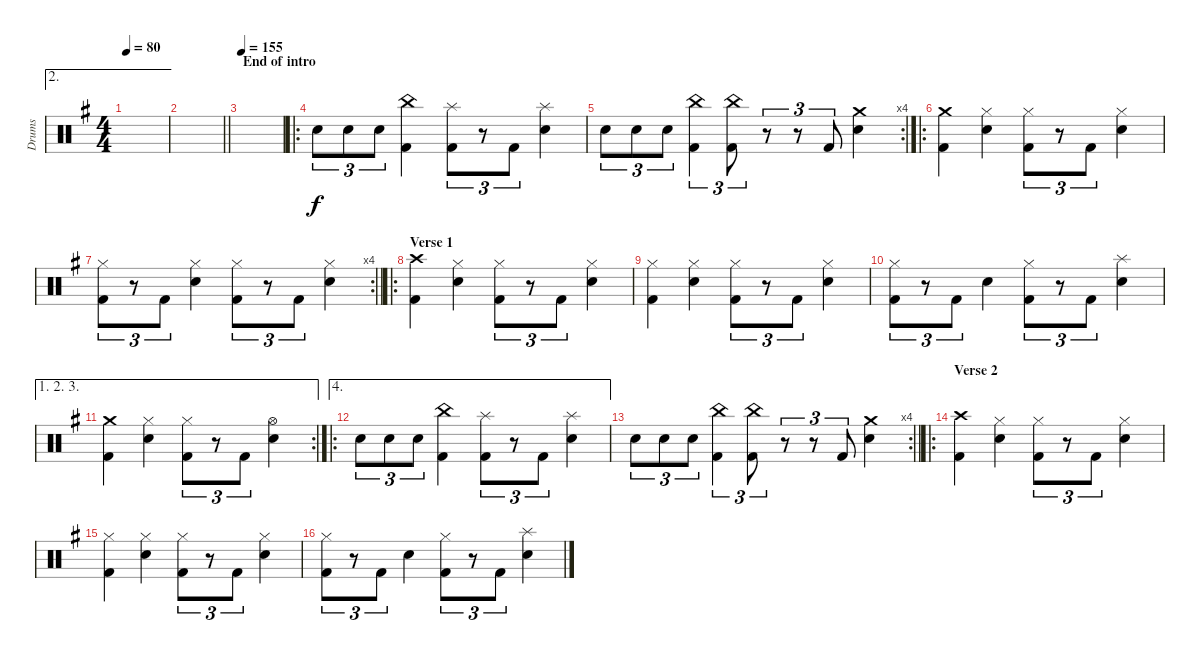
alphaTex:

\track ("Drums" "Drums") {instrument percussion}
\staff {score}
\articulation defaults
\ae 2
\ts (4 4)
\tempo 80
\clef neutral
\ks eminor
|
\barLineRight lightlight
|
\section ("" "End of intro")
\tempo 155
|
\ro "Electric Snare (hit)".8{tu (3 2)} "Electric Snare (hit)".8{tu (3 2)} "Electric Snare (hit)".8{tu (3 2)}
("China (hit)" "Kick (hit) 2").4 ("Splash (hit)" "Kick (hit) 2").8{tu (3 2)} r.8{tu (3 2)} "Kick (hit) 2".8{tu (3 2)} ("Splash (hit)" "Electric Snare (hit)").4 |
\rc 4 "Electric Snare (hit)".8{tu (3 2)} "Electric Snare (hit)".8{tu (3 2)} "Electric Snare (hit)".8{tu (3 2)}
("China (hit)" "Kick (hit) 2").4{tu (3 2)} ("China (hit)" "Kick (hit) 2").8{tu (3 2)} r.8{tu (3 2)} r.8{tu (3 2)} "Kick (hit) 2".8{tu (3 2)} ("Crash medium (hit)" "Electric Snare (hit)").4 |
\ro
("Crash medium (hit)" "Kick (hit) 2").4 ("Hi-Hat (closed)" "Snare (hit) 2").4 ("Hi-Hat (closed)" "Kick (hit) 2").8{tu (3 2)} r.8{tu (3 2)} "Kick (hit) 2".8{tu (3 2)} ("Hi-Hat (closed)" "Snare (hit) 2").4 |
\rc 4
\barLineRight lightlight
("Hi-Hat (closed)" "Kick (hit) 2").8{tu (3 2)} r.8{tu (3 2)} "Kick (hit) 2".8{tu (3 2)} ("Hi-Hat (closed)" "Snare (hit) 2").4 ("Hi-Hat (closed)" "Kick (hit) 2").8{tu (3 2)} r.8{tu (3 2)} "Kick (hit) 2".8{tu (3 2)} ("Hi-Hat (closed)" "Snare (hit) 2").4 |
\ro
\section ("" "Verse 1")
("Crash high (hit)" "Kick (hit) 2").4 ("Hi-Hat (closed)" "Snare (hit) 2").4 ("Hi-Hat (closed)" "Kick (hit) 2").8{tu (3 2)} r.8{tu (3 2)} "Kick (hit) 2".8{tu (3 2)} ("Hi-Hat (closed)" "Snare (hit) 2").4 |
("Hi-Hat (closed)" "Kick (hit) 2").4 ("Hi-Hat (closed)" "Snare (hit) 2").4 ("Hi-Hat (closed)" "Kick (hit) 2").8{tu (3 2)} r.8{tu (3 2)} "Kick (hit) 2".8{tu (3 2)} ("Hi-Hat (closed)" "Snare (hit) 2").4 |
("Hi-Hat (closed)" "Kick (hit) 2").8{tu (3 2)} r.8{tu (3 2)} "Kick (hit) 2".8{tu (3 2)} "Snare (hit) 2".4 ("Hi-Hat (closed)" "Kick (hit) 2").8{tu (3 2)} r.8{tu (3 2)} "Kick (hit) 2".8{tu (3 2)} ("Splash (hit)" "Snare (hit) 2").4 |
\ae (1 2 3)
\rc 2
("Crash medium (hit)" "Kick (hit) 2").4 ("Hi-Hat (closed)" "Snare (hit) 2").4 ("Hi-Hat (closed)" "Kick (hit) 2").8{tu (3 2)} r.8{tu (3 2)} "Kick (hit) 2".8{tu (3 2)} ("Hi-Hat (open)" "Snare (hit) 2").4 |
\ae 4
\ro "Electric Snare (hit)".8{tu (3 2)} "Electric Snare (hit)".8{tu (3 2)} "Electric Snare (hit)".8{tu (3 2)}
("China (hit)" "Kick (hit) 2").4 ("Splash (hit)" "Kick (hit) 2").8{tu (3 2)} r.8{tu (3 2)} "Kick (hit) 2".8{tu (3 2)} ("Splash (hit)" "Electric Snare (hit)").4 |
\rc 4
\barLineRight lightlight "Electric Snare (hit)".8{tu (3 2)} "Electric Snare (hit)".8{tu (3 2)} "Electric Snare (hit)".8{tu (3 2)}
("China (hit)" "Kick (hit) 2").4{tu (3 2)} ("China (hit)" "Kick (hit) 2").8{tu (3 2)} r.8{tu (3 2)} r.8{tu (3 2)} "Kick (hit) 2".8{tu (3 2)} ("Crash medium (hit)" "Electric Snare (hit)").4 |
\ro
\section ("" "Verse 2")
("Crash high (hit)" "Kick (hit) 2").4 ("Hi-Hat (closed)" "Snare (hit) 2").4 ("Hi-Hat (closed)" "Kick (hit) 2").8{tu (3 2)} r.8{tu (3 2)} "Kick (hit) 2".8{tu (3 2)} ("Hi-Hat (closed)" "Snare (hit) 2").4 |
("Hi-Hat (closed)" "Kick (hit) 2").4 ("Hi-Hat (closed)" "Snare (hit) 2").4 ("Hi-Hat (closed)" "Kick (hit) 2").8{tu (3 2)} r.8{tu (3 2)} "Kick (hit) 2".8{tu (3 2)} ("Hi-Hat (closed)" "Snare (hit) 2").4 |
("Hi-Hat (closed)" "Kick (hit) 2").8{tu (3 2)} r.8{tu (3 2)} "Kick (hit) 2".8{tu (3 2)} "Snare (hit) 2".4 ("Hi-Hat (closed)" "Kick (hit) 2").8{tu (3 2)} r.8{tu (3 2)} "Kick (hit) 2".8{tu (3 2)} ("Splash (hit)" "Snare (hit) 2").4
